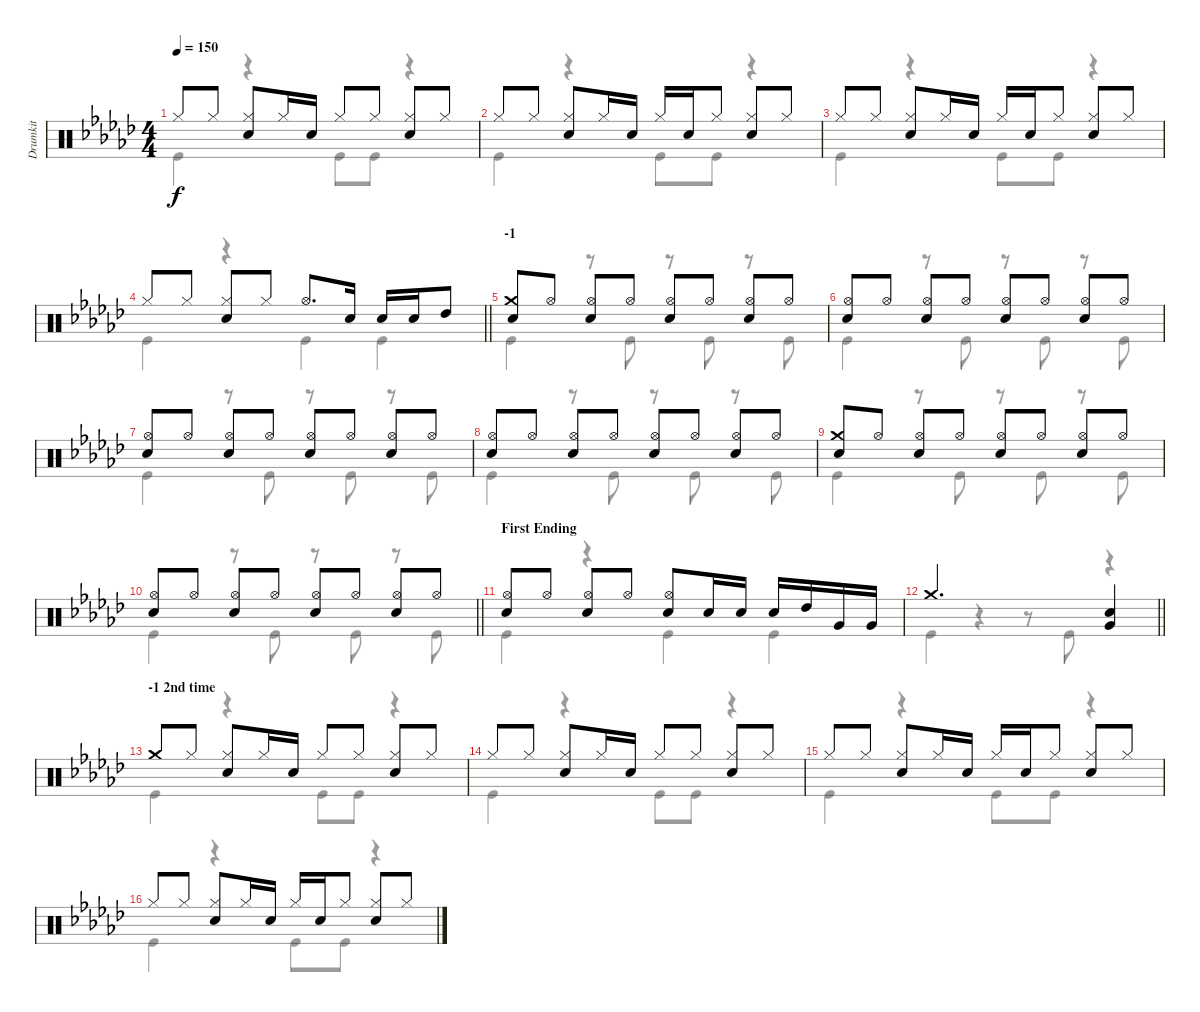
\track ("Drumkit" "Drumkit") {instrument percussion}
\staff {score}
\articulation defaults
\voice
\ts (4 4)
\tempo 150
\clef neutral
\ks ebminor "Hi-Hat (closed)".8{dy f} "Hi-Hat (closed)".8
("Hi-Hat (closed)" "Snare (hit) 2").8 "Hi-Hat (closed)".16 "Snare (hit) 2".16 "Hi-Hat (closed)".8 "Hi-Hat (closed)".8 ("Hi-Hat (closed)" "Snare (hit) 2").8 "Hi-Hat (closed)".8 |
"Hi-Hat (closed)".8 "Hi-Hat (closed)".8 ("Hi-Hat (closed)" "Snare (hit) 2").8 "Hi-Hat (closed)".16 "Snare (hit) 2".16 "Hi-Hat (closed)".16 "Snare (hit) 2".16 "Hi-Hat (closed)".8 ("Hi-Hat (closed)" "Snare (hit) 2").8 "Hi-Hat (closed)".8 |
"Hi-Hat (closed)".8 "Hi-Hat (closed)".8 ("Hi-Hat (closed)" "Snare (hit) 2").8 "Hi-Hat (closed)".16 "Snare (hit) 2".16 "Hi-Hat (closed)".16 "Snare (hit) 2".16 "Hi-Hat (closed)".8 ("Hi-Hat (closed)" "Snare (hit) 2").8 "Hi-Hat (closed)".8 |
\barLineRight lightlight "Hi-Hat (closed)".8 "Hi-Hat (closed)".8
("Hi-Hat (closed)" "Snare (hit) 2").8 "Hi-Hat (closed)".8 "Hi-Hat (open)".8{d} "Snare (hit) 2".16 "Snare (hit) 2".16 "Snare (hit) 2".16 "High Tom (hit)".8 |
\section ("" "-1")
("Crash medium (hit)" "Snare (hit) 2").8 "Hi-Hat (open)".8 ("Hi-Hat (open)" "Snare (hit) 2").8 "Hi-Hat (open)".8 ("Hi-Hat (open)" "Snare (hit) 2").8 "Hi-Hat (open)".8 ("Hi-Hat (open)" "Snare (hit) 2").8 "Hi-Hat (open)".8 |
("Snare (hit) 2" "Hi-Hat (open)").8 "Hi-Hat (open)".8 ("Hi-Hat (open)" "Snare (hit) 2").8 "Hi-Hat (open)".8 ("Hi-Hat (open)" "Snare (hit) 2").8 "Hi-Hat (open)".8 ("Hi-Hat (open)" "Snare (hit) 2").8 "Hi-Hat (open)".8 |
("Snare (hit) 2" "Hi-Hat (open)").8 "Hi-Hat (open)".8 ("Hi-Hat (open)" "Snare (hit) 2").8 "Hi-Hat (open)".8 ("Hi-Hat (open)" "Snare (hit) 2").8 "Hi-Hat (open)".8 ("Hi-Hat (open)" "Snare (hit) 2").8 "Hi-Hat (open)".8 |
("Snare (hit) 2" "Hi-Hat (open)").8 "Hi-Hat (open)".8 ("Hi-Hat (open)" "Snare (hit) 2").8 "Hi-Hat (open)".8 ("Hi-Hat (open)" "Snare (hit) 2").8 "Hi-Hat (open)".8 ("Hi-Hat (open)" "Snare (hit) 2").8 "Hi-Hat (open)".8 |
("Crash medium (hit)" "Snare (hit) 2").8 "Hi-Hat (open)".8 ("Hi-Hat (open)" "Snare (hit) 2").8 "Hi-Hat (open)".8 ("Hi-Hat (open)" "Snare (hit) 2").8 "Hi-Hat (open)".8 ("Hi-Hat (open)" "Snare (hit) 2").8 "Hi-Hat (open)".8 |
\barLineRight lightlight
("Snare (hit) 2" "Hi-Hat (open)").8 "Hi-Hat (open)".8 ("Hi-Hat (open)" "Snare (hit) 2").8 "Hi-Hat (open)".8 ("Hi-Hat (open)" "Snare (hit) 2").8 "Hi-Hat (open)".8 ("Hi-Hat (open)" "Snare (hit) 2").8 "Hi-Hat (open)".8 |
\section ("" "First Ending")
("Hi-Hat (open)" "Snare (hit) 2").8 "Hi-Hat (open)".8 ("Hi-Hat (open)" "Snare (hit) 2").8 "Hi-Hat (open)".8 ("Hi-Hat (open)" "Snare (hit) 2").8 "Snare (hit) 2".16 "Snare (hit) 2".16 "Snare (hit) 2".16 "High Tom (hit)".16 "Very Low Tom (hit)".16 "Very Low Tom (hit)".16 |
\barLineRight lightlight "Crash medium (hit)".2{d}
("Snare (hit) 2" "Very Low Tom (hit)").4 |
\section ("" "-1 2nd time")
"Crash medium (hit)".8 "Hi-Hat (closed)".8 ("Hi-Hat (closed)" "Snare (hit) 2").8 "Hi-Hat (closed)".16 "Snare (hit) 2".16 "Hi-Hat (closed)".8 "Hi-Hat (closed)".8 ("Hi-Hat (closed)" "Snare (hit) 2").8 "Hi-Hat (closed)".8 |
"Hi-Hat (closed)".8 "Hi-Hat (closed)".8 ("Hi-Hat (closed)" "Snare (hit) 2").8 "Hi-Hat (closed)".16 "Snare (hit) 2".16 "Hi-Hat (closed)".8 "Hi-Hat (closed)".8 ("Hi-Hat (closed)" "Snare (hit) 2").8 "Hi-Hat (closed)".8 |
"Hi-Hat (closed)".8 "Hi-Hat (closed)".8 ("Hi-Hat (closed)" "Snare (hit) 2").8 "Hi-Hat (closed)".16 "Snare (hit) 2".16 "Hi-Hat (closed)".16 "Snare (hit) 2".16 "Hi-Hat (closed)".8 ("Hi-Hat (closed)" "Snare (hit) 2").8 "Hi-Hat (closed)".8 |
"Hi-Hat (closed)".8 "Hi-Hat (closed)".8 ("Hi-Hat (closed)" "Snare (hit) 2").8 "Hi-Hat (closed)".16 "Snare (hit) 2".16 "Hi-Hat (closed)".16 "Snare (hit) 2".16 "Hi-Hat (closed)".8 ("Hi-Hat (closed)" "Snare (hit) 2").8 "Hi-Hat (closed)".8
\voice
\clef neutral
\ottava regular
\simile none
\ks ebminor "Kick (hit)".4{dy f}
r.4 "Kick (hit)".8 "Kick (hit)".8 r.4 |
"Kick (hit)".4 r.4 "Kick (hit)".8 "Kick (hit)".8 r.4 |
"Kick (hit)".4 r.4 "Kick (hit)".8 "Kick (hit)".8 r.4 |
\barLineRight lightlight "Kick (hit)".4
r.4 "Kick (hit)".4 "Kick (hit)".4 |
"Kick (hit)".4 r.8 "Kick (hit)".8 r.8 "Kick (hit)".8 r.8 "Kick (hit)".8 |
"Kick (hit)".4 r.8 "Kick (hit)".8 r.8 "Kick (hit)".8 r.8 "Kick (hit)".8 |
"Kick (hit)".4 r.8 "Kick (hit)".8 r.8 "Kick (hit)".8 r.8 "Kick (hit)".8 |
"Kick (hit)".4 r.8 "Kick (hit)".8 r.8 "Kick (hit)".8 r.8 "Kick (hit)".8 |
"Kick (hit)".4 r.8 "Kick (hit)".8 r.8 "Kick (hit)".8 r.8 "Kick (hit)".8 |
\barLineRight lightlight "Kick (hit)".4
r.8 "Kick (hit)".8 r.8 "Kick (hit)".8 r.8 "Kick (hit)".8 |
"Kick (hit)".4 r.4 "Kick (hit)".4 "Kick (hit)".4 |
\barLineRight lightlight "Kick (hit)".4
r.4 r.8 "Kick (hit)".8 r.4 |
"Kick (hit)".4 r.4 "Kick (hit)".8 "Kick (hit)".8 r.4 |
"Kick (hit)".4 r.4 "Kick (hit)".8 "Kick (hit)".8 r.4 |
"Kick (hit)".4 r.4 "Kick (hit)".8 "Kick (hit)".8 r.4 |
"Kick (hit)".4 r.4 "Kick (hit)".8 "Kick (hit)".8 r.4
